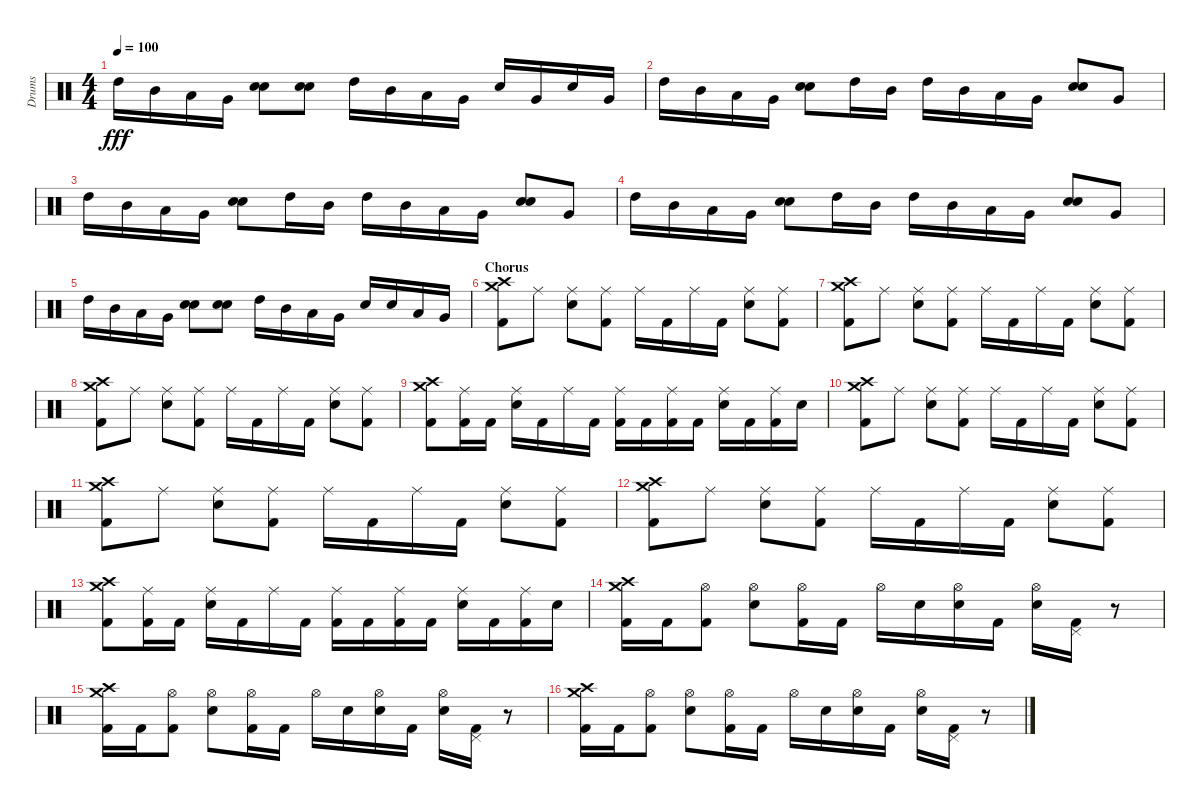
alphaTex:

\track ("Drums" "Drums") {instrument percussion}
\staff {score}
\articulation defaults
\ts (4 4)
\tempo 100
\clef neutral
\ks c "High Tom (hit)".16{dy fff} "Mid Tom (hit)".16 "Low Tom (hit)".16 "Very Low Tom (hit)".16
("Electric Snare (hit)" "Electric Snare (hit)").8 ("Electric Snare (hit)" "Electric Snare (hit)").8 "High Tom (hit)".16 "Mid Tom (hit)".16 "Low Tom (hit)".16 "Very Low Tom (hit)".16 "Electric Snare (hit)".16 "Very Low Tom (hit)".16 "Electric Snare (hit)".16 "Very Low Tom (hit)".16 |
"High Tom (hit)".16 "Mid Tom (hit)".16 "Low Tom (hit)".16 "Very Low Tom (hit)".16 ("Electric Snare (hit)" "Electric Snare (hit)").8 "High Tom (hit)".16 "Mid Tom (hit)".16 "High Tom (hit)".16 "Mid Tom (hit)".16 "Low Tom (hit)".16 "Very Low Tom (hit)".16 ("Electric Snare (hit)" "Electric Snare (hit)").8 "Very Low Tom (hit)".8 |
"High Tom (hit)".16 "Mid Tom (hit)".16 "Low Tom (hit)".16 "Very Low Tom (hit)".16 ("Electric Snare (hit)" "Electric Snare (hit)").8 "High Tom (hit)".16 "Mid Tom (hit)".16 "High Tom (hit)".16 "Mid Tom (hit)".16 "Low Tom (hit)".16 "Very Low Tom (hit)".16 ("Electric Snare (hit)" "Electric Snare (hit)").8 "Very Low Tom (hit)".8 |
"High Tom (hit)".16 "Mid Tom (hit)".16 "Low Tom (hit)".16 "Very Low Tom (hit)".16 ("Electric Snare (hit)" "Electric Snare (hit)").8 "High Tom (hit)".16 "Mid Tom (hit)".16 "High Tom (hit)".16 "Mid Tom (hit)".16 "Low Tom (hit)".16 "Very Low Tom (hit)".16 ("Electric Snare (hit)" "Electric Snare (hit)").8 "Very Low Tom (hit)".8 |
"High Tom (hit)".16 "Mid Tom (hit)".16 "Low Tom (hit)".16 "Very Low Tom (hit)".16 ("Electric Snare (hit)" "Electric Snare (hit)").8 ("Electric Snare (hit)" "Electric Snare (hit)").8 "High Tom (hit)".16 "Mid Tom (hit)".16 "Low Tom (hit)".16 "Very Low Tom (hit)".16 "Electric Snare (hit)".16 "Electric Snare (hit)".16 "Low Tom (hit)".16 "Very Low Tom (hit)".16 |
\section ("" "Chorus")
("Crash high (hit)" "Crash medium (hit)" "Kick (hit) 2").8 "Ride (middle)".8 ("Ride (middle)" "Electric Snare (hit)").8 ("Ride (middle)" "Kick (hit) 2").8 "Ride (middle)".16 "Kick (hit) 2".16 "Ride (middle)".16 "Kick (hit) 2".16 ("Ride (middle)" "Electric Snare (hit)").8 ("Ride (middle)" "Kick (hit) 2").8 |
("Crash high (hit)" "Crash medium (hit)" "Kick (hit) 2").8 "Ride (middle)".8 ("Ride (middle)" "Electric Snare (hit)").8 ("Ride (middle)" "Kick (hit) 2").8 "Ride (middle)".16 "Kick (hit) 2".16 "Ride (middle)".16 "Kick (hit) 2".16 ("Ride (middle)" "Electric Snare (hit)").8 ("Ride (middle)" "Kick (hit) 2").8 |
("Crash high (hit)" "Crash medium (hit)" "Kick (hit) 2").8 "Ride (middle)".8 ("Ride (middle)" "Electric Snare (hit)").8 ("Ride (middle)" "Kick (hit) 2").8 "Ride (middle)".16 "Kick (hit) 2".16 "Ride (middle)".16 "Kick (hit) 2".16 ("Ride (middle)" "Electric Snare (hit)").8 ("Ride (middle)" "Kick (hit) 2").8 |
("Crash high (hit)" "Crash medium (hit)" "Kick (hit) 2").8 ("Ride (middle)" "Kick (hit) 2").16 "Kick (hit) 2".16 ("Ride (middle)" "Electric Snare (hit)").16 "Kick (hit) 2".16 "Ride (middle)".16 "Kick (hit) 2".16 ("Ride (middle)" "Kick (hit) 2").16 "Kick (hit) 2".16 ("Ride (middle)" "Kick (hit) 2").16 "Kick (hit) 2".16 ("Ride (middle)" "Electric Snare (hit)").16 "Kick (hit) 2".16 ("Ride (middle)" "Kick (hit) 2").16 "Electric Snare (hit)".16 |
("Crash high (hit)" "Crash medium (hit)" "Kick (hit) 2").8 "Ride (middle)".8 ("Ride (middle)" "Electric Snare (hit)").8 ("Ride (middle)" "Kick (hit) 2").8 "Ride (middle)".16 "Kick (hit) 2".16 "Ride (middle)".16 "Kick (hit) 2".16 ("Ride (middle)" "Electric Snare (hit)").8 ("Ride (middle)" "Kick (hit) 2").8 |
("Crash high (hit)" "Crash medium (hit)" "Kick (hit) 2").8 "Ride (middle)".8 ("Ride (middle)" "Electric Snare (hit)").8 ("Ride (middle)" "Kick (hit) 2").8 "Ride (middle)".16 "Kick (hit) 2".16 "Ride (middle)".16 "Kick (hit) 2".16 ("Ride (middle)" "Electric Snare (hit)").8 ("Ride (middle)" "Kick (hit) 2").8 |
("Crash high (hit)" "Crash medium (hit)" "Kick (hit) 2").8 "Ride (middle)".8 ("Ride (middle)" "Electric Snare (hit)").8 ("Ride (middle)" "Kick (hit) 2").8 "Ride (middle)".16 "Kick (hit) 2".16 "Ride (middle)".16 "Kick (hit) 2".16 ("Ride (middle)" "Electric Snare (hit)").8 ("Ride (middle)" "Kick (hit) 2").8 |
("Crash high (hit)" "Crash medium (hit)" "Kick (hit) 2").8 ("Ride (middle)" "Kick (hit) 2").16 "Kick (hit) 2".16 ("Ride (middle)" "Electric Snare (hit)").16 "Kick (hit) 2".16 "Ride (middle)".16 "Kick (hit) 2".16 ("Ride (middle)" "Kick (hit) 2").16 "Kick (hit) 2".16 ("Ride (middle)" "Kick (hit) 2").16 "Kick (hit) 2".16 ("Ride (middle)" "Electric Snare (hit)").16 "Kick (hit) 2".16 ("Ride (middle)" "Kick (hit) 2").16 "Electric Snare (hit)".16 |
("Crash high (hit)" "Crash medium (hit)" "Kick (hit) 2").16 "Kick (hit) 2".16 ("Hi-Hat (open)" "Kick (hit) 2").8 ("Hi-Hat (open)" "Electric Snare (hit)").8 ("Hi-Hat (open)" "Kick (hit) 2").16 "Kick (hit) 2".16 "Hi-Hat (open)".16 "Electric Snare (hit)".16 ("Hi-Hat (open)" "Electric Snare (hit)").16 "Kick (hit) 2".16 ("Hi-Hat (open)" "Electric Snare (hit)").16 ("Pedal Hi-Hat (hit)" "Kick (hit) 2").16 r.8 |
("Crash high (hit)" "Crash medium (hit)" "Kick (hit) 2").16 "Kick (hit) 2".16 ("Hi-Hat (open)" "Kick (hit) 2").8 ("Hi-Hat (open)" "Electric Snare (hit)").8 ("Hi-Hat (open)" "Kick (hit) 2").16 "Kick (hit) 2".16 "Hi-Hat (open)".16 "Electric Snare (hit)".16 ("Hi-Hat (open)" "Electric Snare (hit)").16 "Kick (hit) 2".16 ("Hi-Hat (open)" "Electric Snare (hit)").16 ("Pedal Hi-Hat (hit)" "Kick (hit) 2").16 r.8 |
("Crash high (hit)" "Crash medium (hit)" "Kick (hit) 2").16 "Kick (hit) 2".16 ("Hi-Hat (open)" "Kick (hit) 2").8 ("Hi-Hat (open)" "Electric Snare (hit)").8 ("Hi-Hat (open)" "Kick (hit) 2").16 "Kick (hit) 2".16 "Hi-Hat (open)".16 "Electric Snare (hit)".16 ("Hi-Hat (open)" "Electric Snare (hit)").16 "Kick (hit) 2".16 ("Hi-Hat (open)" "Electric Snare (hit)").16 ("Pedal Hi-Hat (hit)" "Kick (hit) 2").16 r.8
